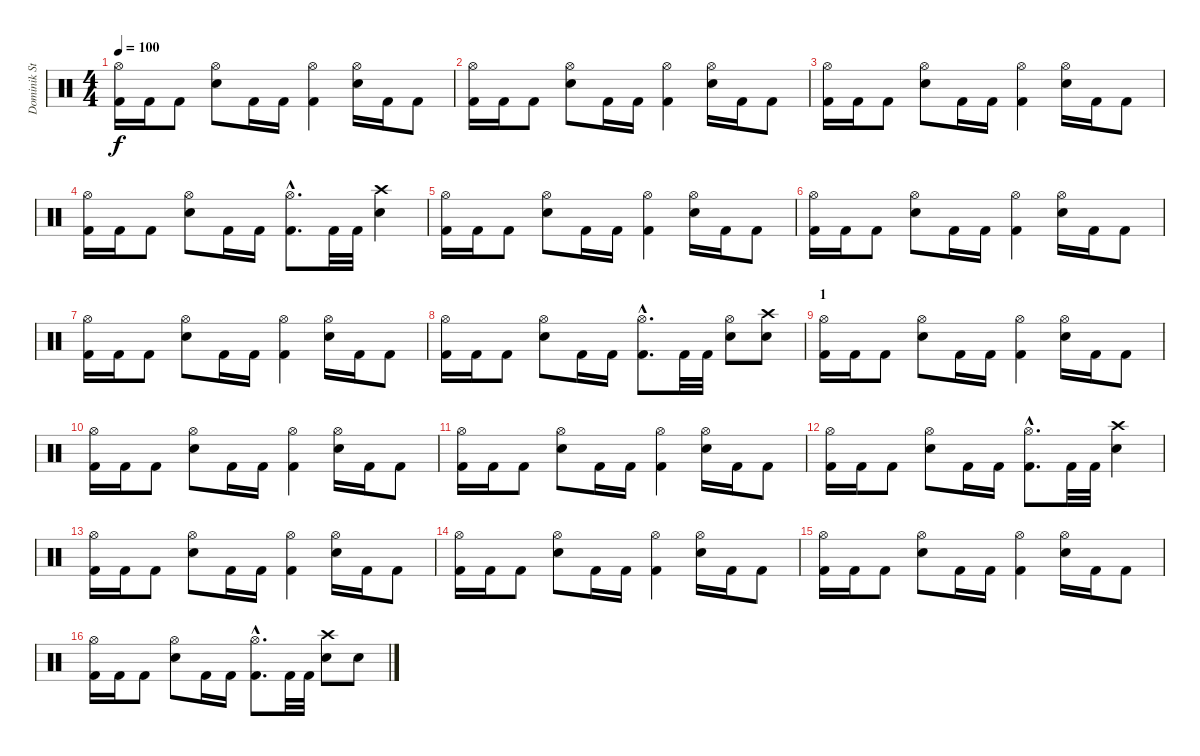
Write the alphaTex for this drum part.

\track ("Dominik Storch" "Dominik St") {instrument percussion}
\staff {score}
\articulation defaults
\ts (4 4)
\tempo 100
\clef neutral
\ks c
("Hi-Hat (open)" "Kick (hit) 2").16{dy f} "Kick (hit) 2".16 "Kick (hit) 2".8 ("Hi-Hat (open)" "Snare (hit) 2").8 "Kick (hit) 2".16 "Kick (hit) 2".16 ("Hi-Hat (open)" "Kick (hit) 2").4 ("Hi-Hat (open)" "Snare (hit) 2").16 "Kick (hit) 2".16 "Kick (hit) 2".8 |
("Hi-Hat (open)" "Kick (hit) 2").16 "Kick (hit) 2".16 "Kick (hit) 2".8 ("Hi-Hat (open)" "Snare (hit) 2").8 "Kick (hit) 2".16 "Kick (hit) 2".16 ("Hi-Hat (open)" "Kick (hit) 2").4 ("Hi-Hat (open)" "Snare (hit) 2").16 "Kick (hit) 2".16 "Kick (hit) 2".8 |
("Hi-Hat (open)" "Kick (hit) 2").16 "Kick (hit) 2".16 "Kick (hit) 2".8 ("Hi-Hat (open)" "Snare (hit) 2").8 "Kick (hit) 2".16 "Kick (hit) 2".16 ("Hi-Hat (open)" "Kick (hit) 2").4 ("Hi-Hat (open)" "Snare (hit) 2").16 "Kick (hit) 2".16 "Kick (hit) 2".8 |
("Hi-Hat (open)" "Kick (hit) 2").16 "Kick (hit) 2".16 "Kick (hit) 2".8 ("Hi-Hat (open)" "Snare (hit) 2").8 "Kick (hit) 2".16 "Kick (hit) 2".16 ("Hi-Hat (open)"{hac} "Kick (hit) 2"{hac}).8{d} "Kick (hit) 2".32 "Kick (hit) 2".32 ("Crash high (hit)" "Snare (hit) 2").4 |
("Hi-Hat (open)" "Kick (hit) 2").16 "Kick (hit) 2".16 "Kick (hit) 2".8 ("Hi-Hat (open)" "Snare (hit) 2").8 "Kick (hit) 2".16 "Kick (hit) 2".16 ("Hi-Hat (open)" "Kick (hit) 2").4 ("Hi-Hat (open)" "Snare (hit) 2").16 "Kick (hit) 2".16 "Kick (hit) 2".8 |
("Hi-Hat (open)" "Kick (hit) 2").16 "Kick (hit) 2".16 "Kick (hit) 2".8 ("Hi-Hat (open)" "Snare (hit) 2").8 "Kick (hit) 2".16 "Kick (hit) 2".16 ("Hi-Hat (open)" "Kick (hit) 2").4 ("Hi-Hat (open)" "Snare (hit) 2").16 "Kick (hit) 2".16 "Kick (hit) 2".8 |
("Hi-Hat (open)" "Kick (hit) 2").16 "Kick (hit) 2".16 "Kick (hit) 2".8 ("Hi-Hat (open)" "Snare (hit) 2").8 "Kick (hit) 2".16 "Kick (hit) 2".16 ("Hi-Hat (open)" "Kick (hit) 2").4 ("Hi-Hat (open)" "Snare (hit) 2").16 "Kick (hit) 2".16 "Kick (hit) 2".8 |
("Hi-Hat (open)" "Kick (hit) 2").16 "Kick (hit) 2".16 "Kick (hit) 2".8 ("Hi-Hat (open)" "Snare (hit) 2").8 "Kick (hit) 2".16 "Kick (hit) 2".16 ("Hi-Hat (open)"{hac} "Kick (hit) 2"{hac}).8{d} "Kick (hit) 2".32 "Kick (hit) 2".32 ("Hi-Hat (open)" "Snare (hit) 2").8 ("Crash high (hit)" "Snare (hit) 2").8 |
\section ("" "1")
("Hi-Hat (open)" "Kick (hit) 2").16 "Kick (hit) 2".16 "Kick (hit) 2".8 ("Hi-Hat (open)" "Snare (hit) 2").8 "Kick (hit) 2".16 "Kick (hit) 2".16 ("Hi-Hat (open)" "Kick (hit) 2").4 ("Hi-Hat (open)" "Snare (hit) 2").16 "Kick (hit) 2".16 "Kick (hit) 2".8 |
("Hi-Hat (open)" "Kick (hit) 2").16 "Kick (hit) 2".16 "Kick (hit) 2".8 ("Hi-Hat (open)" "Snare (hit) 2").8 "Kick (hit) 2".16 "Kick (hit) 2".16 ("Hi-Hat (open)" "Kick (hit) 2").4 ("Hi-Hat (open)" "Snare (hit) 2").16 "Kick (hit) 2".16 "Kick (hit) 2".8 |
("Hi-Hat (open)" "Kick (hit) 2").16 "Kick (hit) 2".16 "Kick (hit) 2".8 ("Hi-Hat (open)" "Snare (hit) 2").8 "Kick (hit) 2".16 "Kick (hit) 2".16 ("Hi-Hat (open)" "Kick (hit) 2").4 ("Hi-Hat (open)" "Snare (hit) 2").16 "Kick (hit) 2".16 "Kick (hit) 2".8 |
("Hi-Hat (open)" "Kick (hit) 2").16 "Kick (hit) 2".16 "Kick (hit) 2".8 ("Hi-Hat (open)" "Snare (hit) 2").8 "Kick (hit) 2".16 "Kick (hit) 2".16 ("Hi-Hat (open)"{hac} "Kick (hit) 2"{hac}).8{d} "Kick (hit) 2".32 "Kick (hit) 2".32 ("Crash high (hit)" "Snare (hit) 2").4 |
("Hi-Hat (open)" "Kick (hit) 2").16 "Kick (hit) 2".16 "Kick (hit) 2".8 ("Hi-Hat (open)" "Snare (hit) 2").8 "Kick (hit) 2".16 "Kick (hit) 2".16 ("Hi-Hat (open)" "Kick (hit) 2").4 ("Hi-Hat (open)" "Snare (hit) 2").16 "Kick (hit) 2".16 "Kick (hit) 2".8 |
("Hi-Hat (open)" "Kick (hit) 2").16 "Kick (hit) 2".16 "Kick (hit) 2".8 ("Hi-Hat (open)" "Snare (hit) 2").8 "Kick (hit) 2".16 "Kick (hit) 2".16 ("Hi-Hat (open)" "Kick (hit) 2").4 ("Hi-Hat (open)" "Snare (hit) 2").16 "Kick (hit) 2".16 "Kick (hit) 2".8 |
("Hi-Hat (open)" "Kick (hit) 2").16 "Kick (hit) 2".16 "Kick (hit) 2".8 ("Hi-Hat (open)" "Snare (hit) 2").8 "Kick (hit) 2".16 "Kick (hit) 2".16 ("Hi-Hat (open)" "Kick (hit) 2").4 ("Hi-Hat (open)" "Snare (hit) 2").16 "Kick (hit) 2".16 "Kick (hit) 2".8 |
("Hi-Hat (open)" "Kick (hit) 2").16 "Kick (hit) 2".16 "Kick (hit) 2".8 ("Hi-Hat (open)" "Snare (hit) 2").8 "Kick (hit) 2".16 "Kick (hit) 2".16 ("Hi-Hat (open)"{hac} "Kick (hit) 2"{hac}).8{d} "Kick (hit) 2".32 "Kick (hit) 2".32 ("Crash high (hit)" "Snare (hit) 2").8 "Snare (hit) 2".8
